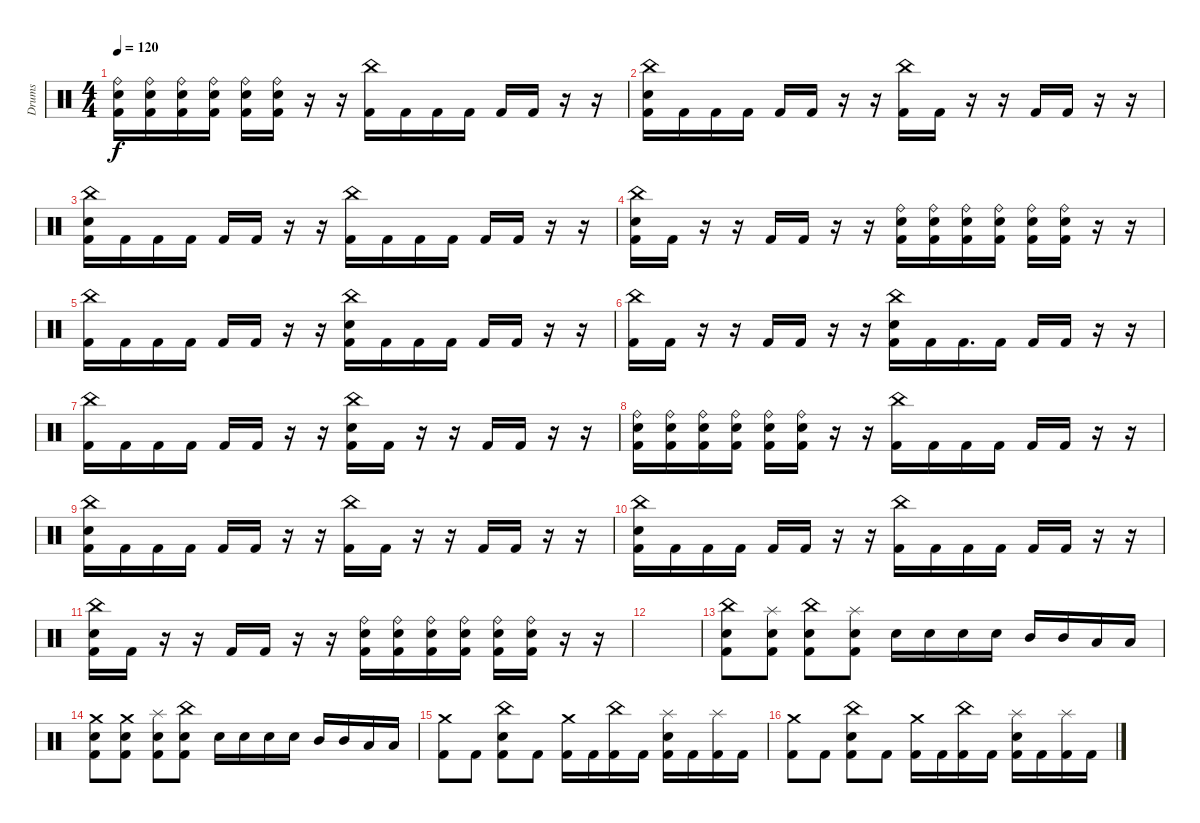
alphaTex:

\track ("Drums" "Drums") {instrument percussion}
\staff {score}
\articulation defaults
\ts (4 4)
\tempo 120
\clef neutral
\ks c
("Ride (bell)" "Snare (hit) 2" "Kick (hit) 2").16{dy f} ("Ride (bell)" "Snare (hit) 2" "Kick (hit) 2").16 ("Ride (bell)" "Snare (hit) 2" "Kick (hit) 2").16 ("Ride (bell)" "Snare (hit) 2" "Kick (hit) 2").16 ("Ride (bell)" "Snare (hit) 2" "Kick (hit) 2").16 ("Ride (bell)" "Snare (hit) 2" "Kick (hit) 2").16 r.16 r.16 ("China (hit)" "Kick (hit) 2").16 "Kick (hit) 2".16 "Kick (hit) 2".16 "Kick (hit) 2".16 "Kick (hit) 2".16 "Kick (hit) 2".16 r.16 r.16 |
("China (hit)" "Snare (hit) 2" "Kick (hit) 2").16 "Kick (hit) 2".16 "Kick (hit) 2".16 "Kick (hit) 2".16 "Kick (hit) 2".16 "Kick (hit) 2".16 r.16 r.16 ("China (hit)" "Kick (hit) 2").16 "Kick (hit) 2".16 r.16 r.16 "Kick (hit) 2".16 "Kick (hit) 2".16 r.16 r.16 |
("China (hit)" "Snare (hit) 2" "Kick (hit) 2").16 "Kick (hit) 2".16 "Kick (hit) 2".16 "Kick (hit) 2".16 "Kick (hit) 2".16 "Kick (hit) 2".16 r.16 r.16 ("China (hit)" "Kick (hit) 2").16 "Kick (hit) 2".16 "Kick (hit) 2".16 "Kick (hit) 2".16 "Kick (hit) 2".16 "Kick (hit) 2".16 r.16 r.16 |
("China (hit)" "Snare (hit) 2" "Kick (hit) 2").16 "Kick (hit) 2".16 r.16 r.16 "Kick (hit) 2".16 "Kick (hit) 2".16 r.16 r.16 ("Ride (bell)" "Snare (hit) 2" "Kick (hit) 2").16 ("Ride (bell)" "Snare (hit) 2" "Kick (hit) 2").16 ("Ride (bell)" "Snare (hit) 2" "Kick (hit) 2").16 ("Ride (bell)" "Snare (hit) 2" "Kick (hit) 2").16 ("Ride (bell)" "Snare (hit) 2" "Kick (hit) 2").16 ("Ride (bell)" "Snare (hit) 2" "Kick (hit) 2").16 r.16 r.16 |
("China (hit)" "Kick (hit) 2").16 "Kick (hit) 2".16 "Kick (hit) 2".16 "Kick (hit) 2".16 "Kick (hit) 2".16 "Kick (hit) 2".16 r.16 r.16 ("China (hit)" "Snare (hit) 2" "Kick (hit) 2").16 "Kick (hit) 2".16 "Kick (hit) 2".16 "Kick (hit) 2".16 "Kick (hit) 2".16 "Kick (hit) 2".16 r.16 r.16 |
("China (hit)" "Kick (hit) 2").16 "Kick (hit) 2".16 r.16 r.16 "Kick (hit) 2".16 "Kick (hit) 2".16 r.16 r.16 ("China (hit)" "Snare (hit) 2" "Kick (hit) 2").16 "Kick (hit) 2".16 "Kick (hit) 2".16{d} "Kick (hit) 2".16 "Kick (hit) 2".16 "Kick (hit) 2".16 r.16 r.16 |
("China (hit)" "Kick (hit) 2").16 "Kick (hit) 2".16 "Kick (hit) 2".16 "Kick (hit) 2".16 "Kick (hit) 2".16 "Kick (hit) 2".16 r.16 r.16 ("China (hit)" "Snare (hit) 2" "Kick (hit) 2").16 "Kick (hit) 2".16 r.16 r.16 "Kick (hit) 2".16 "Kick (hit) 2".16 r.16 r.16 |
("Ride (bell)" "Snare (hit) 2" "Kick (hit) 2").16 ("Ride (bell)" "Snare (hit) 2" "Kick (hit) 2").16 ("Ride (bell)" "Snare (hit) 2" "Kick (hit) 2").16 ("Ride (bell)" "Snare (hit) 2" "Kick (hit) 2").16 ("Ride (bell)" "Snare (hit) 2" "Kick (hit) 2").16 ("Ride (bell)" "Snare (hit) 2" "Kick (hit) 2").16 r.16 r.16 ("China (hit)" "Kick (hit) 2").16 "Kick (hit) 2".16 "Kick (hit) 2".16 "Kick (hit) 2".16 "Kick (hit) 2".16 "Kick (hit) 2".16 r.16 r.16 |
("China (hit)" "Snare (hit) 2" "Kick (hit) 2").16 "Kick (hit) 2".16 "Kick (hit) 2".16 "Kick (hit) 2".16 "Kick (hit) 2".16 "Kick (hit) 2".16 r.16 r.16 ("China (hit)" "Kick (hit) 2").16 "Kick (hit) 2".16 r.16 r.16 "Kick (hit) 2".16 "Kick (hit) 2".16 r.16 r.16 |
("China (hit)" "Snare (hit) 2" "Kick (hit) 2").16 "Kick (hit) 2".16 "Kick (hit) 2".16 "Kick (hit) 2".16 "Kick (hit) 2".16 "Kick (hit) 2".16 r.16 r.16 ("China (hit)" "Kick (hit) 2").16 "Kick (hit) 2".16 "Kick (hit) 2".16 "Kick (hit) 2".16 "Kick (hit) 2".16 "Kick (hit) 2".16 r.16 r.16 |
("China (hit)" "Snare (hit) 2" "Kick (hit) 2").16 "Kick (hit) 2".16 r.16 r.16 "Kick (hit) 2".16 "Kick (hit) 2".16 r.16 r.16 ("Ride (bell)" "Snare (hit) 2" "Kick (hit) 2").16 ("Ride (bell)" "Snare (hit) 2" "Kick (hit) 2").16 ("Ride (bell)" "Snare (hit) 2" "Kick (hit) 2").16 ("Ride (bell)" "Snare (hit) 2" "Kick (hit) 2").16 ("Ride (bell)" "Snare (hit) 2" "Kick (hit) 2").16 ("Ride (bell)" "Snare (hit) 2" "Kick (hit) 2").16 r.16 r.16 |
|
("China (hit)" "Snare (hit) 2" "Kick (hit) 2").8 ("Splash (hit)" "Snare (hit) 2" "Kick (hit) 2").8 ("China (hit)" "Snare (hit) 2" "Kick (hit) 2").8 ("Splash (hit)" "Snare (hit) 2" "Kick (hit) 2").8 "Snare (hit) 2".16 "Snare (hit) 2".16 "Snare (hit) 2".16 "Snare (hit) 2".16 "Mid Tom (hit)".16 "Mid Tom (hit)".16 "Low Tom (hit)".16 "Low Tom (hit)".16 |
("Crash medium (hit)" "Snare (hit) 2" "Kick (hit) 2").8 ("Crash medium (hit)" "Snare (hit) 2" "Kick (hit) 2").8 ("Splash (hit)" "Snare (hit) 2" "Kick (hit) 2").8 ("China (hit)" "Snare (hit) 2" "Kick (hit) 2").8 "Snare (hit) 2".16 "Snare (hit) 2".16 "Snare (hit) 2".16 "Snare (hit) 2".16 "Mid Tom (hit)".16 "Mid Tom (hit)".16 "Low Tom (hit)".16 "Low Tom (hit)".16 |
("Crash medium (hit)" "Kick (hit) 2").8 "Kick (hit) 2".8 ("China (hit)" "Snare (hit) 2" "Kick (hit) 2").8 "Kick (hit) 2".8 ("Crash medium (hit)" "Kick (hit) 2").16 "Kick (hit) 2".16 ("China (hit)" "Kick (hit) 2").16 "Kick (hit) 2".16 ("Splash (hit)" "Snare (hit) 2" "Kick (hit) 2").16 "Kick (hit) 2".16 ("Splash (hit)" "Kick (hit) 2").16 "Kick (hit) 2".16 |
("Crash medium (hit)" "Kick (hit) 2").8 "Kick (hit) 2".8 ("China (hit)" "Snare (hit) 2" "Kick (hit) 2").8 "Kick (hit) 2".8 ("Crash medium (hit)" "Kick (hit) 2").16 "Kick (hit) 2".16 ("China (hit)" "Kick (hit) 2").16 "Kick (hit) 2".16 ("Splash (hit)" "Snare (hit) 2" "Kick (hit) 2").16 "Kick (hit) 2".16 ("Splash (hit)" "Kick (hit) 2").16 "Kick (hit) 2".16
